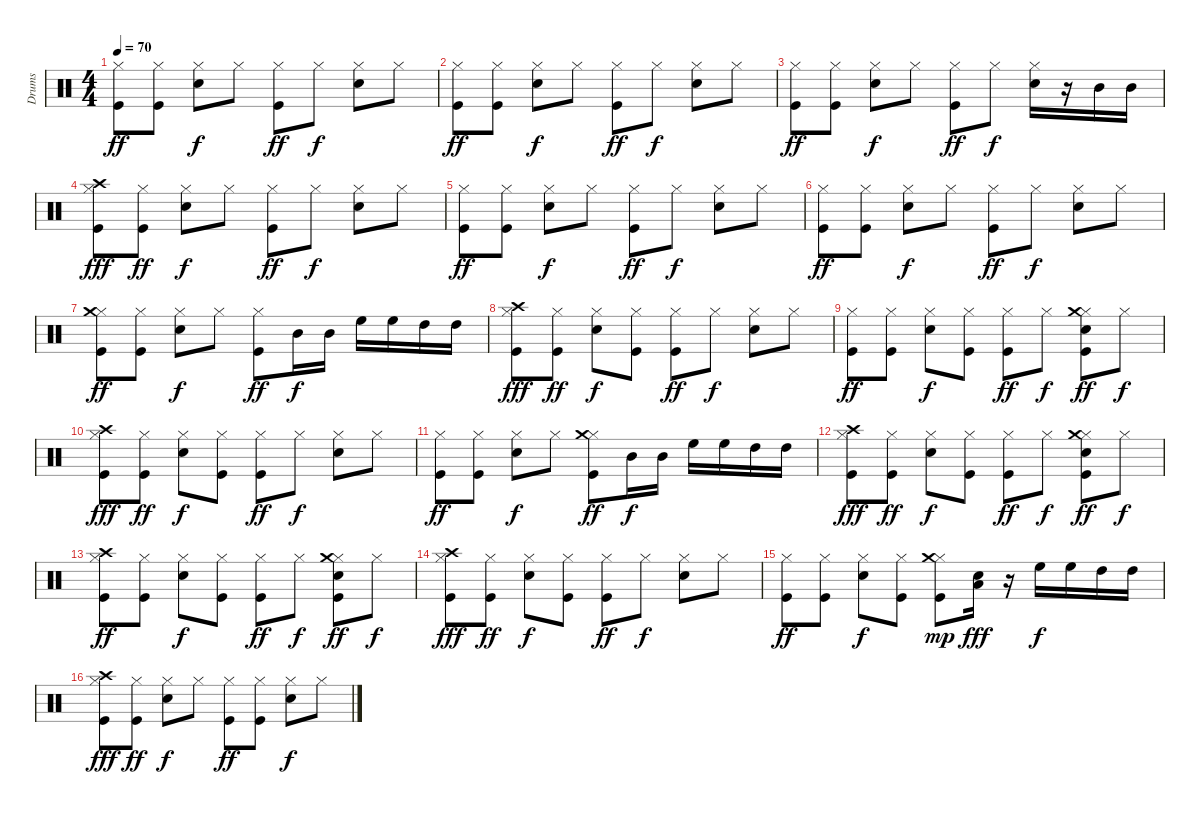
\track ("Drums" "Drums") {instrument percussion}
\staff {score}
\articulation defaults
\ts (4 4)
\tempo 70
\clef neutral
\ks c
("Hi-Hat (closed)" "Kick (hit)").8{dy ff} ("Hi-Hat (closed)" "Kick (hit)").8 ("Hi-Hat (closed)" "Snare (hit) 2").8{dy f} "Hi-Hat (closed)".8 ("Hi-Hat (closed)" "Kick (hit)").8{dy ff} "Hi-Hat (closed)".8{dy f} ("Hi-Hat (closed)" "Snare (hit) 2").8 "Hi-Hat (closed)".8 |
("Hi-Hat (closed)" "Kick (hit)").8{dy ff} ("Hi-Hat (closed)" "Kick (hit)").8 ("Hi-Hat (closed)" "Snare (hit) 2").8{dy f} "Hi-Hat (closed)".8 ("Hi-Hat (closed)" "Kick (hit)").8{dy ff} "Hi-Hat (closed)".8{dy f} ("Hi-Hat (closed)" "Snare (hit) 2").8 "Hi-Hat (closed)".8 |
("Hi-Hat (closed)" "Kick (hit)").8{dy ff} ("Hi-Hat (closed)" "Kick (hit)").8 ("Hi-Hat (closed)" "Snare (hit) 2").8{dy f} "Hi-Hat (closed)".8 ("Hi-Hat (closed)" "Kick (hit)").8{dy ff} "Hi-Hat (closed)".8{dy f} ("Hi-Hat (closed)" "Snare (hit) 2").16 r.16 "Mid Tom (hit)".16 "Mid Tom (hit)".16 |
("Hi-Hat (closed)" "Kick (hit)" "Crash high (hit)").8{dy fff} ("Hi-Hat (closed)" "Kick (hit)").8{dy ff} ("Hi-Hat (closed)" "Snare (hit) 2").8{dy f} "Hi-Hat (closed)".8 ("Hi-Hat (closed)" "Kick (hit)").8{dy ff} "Hi-Hat (closed)".8{dy f} ("Hi-Hat (closed)" "Snare (hit) 2").8 "Hi-Hat (closed)".8 |
("Hi-Hat (closed)" "Kick (hit)").8{dy ff} ("Hi-Hat (closed)" "Kick (hit)").8 ("Hi-Hat (closed)" "Snare (hit) 2").8{dy f} "Hi-Hat (closed)".8 ("Hi-Hat (closed)" "Kick (hit)").8{dy ff} "Hi-Hat (closed)".8{dy f} ("Hi-Hat (closed)" "Snare (hit) 2").8 "Hi-Hat (closed)".8 |
("Hi-Hat (closed)" "Kick (hit)").8{dy ff} ("Hi-Hat (closed)" "Kick (hit)").8 ("Hi-Hat (closed)" "Snare (hit) 2").8{dy f} "Hi-Hat (closed)".8 ("Hi-Hat (closed)" "Kick (hit)").8{dy ff} "Hi-Hat (closed)".8{dy f} ("Hi-Hat (closed)" "Snare (hit) 2").8 "Hi-Hat (closed)".8 |
("Hi-Hat (closed)" "Kick (hit)" "Crash medium (hit)").8{dy ff} ("Hi-Hat (closed)" "Kick (hit)").8 ("Hi-Hat (closed)" "Snare (hit) 2").8{dy f} "Hi-Hat (closed)".8 ("Hi-Hat (closed)" "Kick (hit)").8{dy ff} "Mid Tom (hit)".16{dy f} "Mid Tom (hit)".16 "High Floor Tom (hit)".16 "High Floor Tom (hit)".16 "High Tom (hit)".16 "High Tom (hit)".16 |
("Hi-Hat (closed)" "Kick (hit)" "Crash high (hit)").8{dy fff} ("Hi-Hat (closed)" "Kick (hit)").8{dy ff} ("Hi-Hat (closed)" "Snare (hit) 2").8{dy f} ("Hi-Hat (closed)" "Kick (hit)").8 ("Hi-Hat (closed)" "Kick (hit)").8{dy ff} "Hi-Hat (closed)".8{dy f} ("Hi-Hat (closed)" "Snare (hit) 2").8 "Hi-Hat (closed)".8 |
("Hi-Hat (closed)" "Kick (hit)").8{dy ff} ("Hi-Hat (closed)" "Kick (hit)").8 ("Hi-Hat (closed)" "Snare (hit) 2").8{dy f} ("Hi-Hat (closed)" "Kick (hit)").8 ("Hi-Hat (closed)" "Kick (hit)").8{dy ff} "Hi-Hat (closed)".8{dy f} ("Hi-Hat (closed)" "Snare (hit) 2" "Kick (hit)" "Crash medium (hit)").8{dy ff} "Hi-Hat (closed)".8{dy f} |
("Hi-Hat (closed)" "Kick (hit)" "Crash high (hit)").8{dy fff} ("Hi-Hat (closed)" "Kick (hit)").8{dy ff} ("Hi-Hat (closed)" "Snare (hit) 2").8{dy f} ("Hi-Hat (closed)" "Kick (hit)").8 ("Hi-Hat (closed)" "Kick (hit)").8{dy ff} "Hi-Hat (closed)".8{dy f} ("Hi-Hat (closed)" "Snare (hit) 2").8 "Hi-Hat (closed)".8 |
("Hi-Hat (closed)" "Kick (hit)").8{dy ff} ("Hi-Hat (closed)" "Kick (hit)").8 ("Hi-Hat (closed)" "Snare (hit) 2").8{dy f} "Hi-Hat (closed)".8 ("Hi-Hat (closed)" "Kick (hit)" "Crash medium (hit)").8{dy ff} "Mid Tom (hit)".16{dy f} "Mid Tom (hit)".16 "High Floor Tom (hit)".16 "High Floor Tom (hit)".16 "High Tom (hit)".16 "High Tom (hit)".16 |
("Hi-Hat (closed)" "Kick (hit)" "Crash high (hit)").8{dy fff} ("Hi-Hat (closed)" "Kick (hit)").8{dy ff} ("Hi-Hat (closed)" "Snare (hit) 2").8{dy f} ("Hi-Hat (closed)" "Kick (hit)").8 ("Hi-Hat (closed)" "Kick (hit)").8{dy ff} "Hi-Hat (closed)".8{dy f} ("Hi-Hat (closed)" "Snare (hit) 2" "Kick (hit)" "Crash medium (hit)").8{dy ff} "Hi-Hat (closed)".8{dy f} |
("Hi-Hat (closed)" "Kick (hit)" "Crash high (hit)").8{dy ff} ("Hi-Hat (closed)" "Kick (hit)").8 ("Hi-Hat (closed)" "Snare (hit) 2").8{dy f} ("Hi-Hat (closed)" "Kick (hit)").8 ("Hi-Hat (closed)" "Kick (hit)").8{dy ff} "Hi-Hat (closed)".8{dy f} ("Hi-Hat (closed)" "Snare (hit) 2" "Kick (hit)" "Crash medium (hit)").8{dy ff} "Hi-Hat (closed)".8{dy f} |
("Hi-Hat (closed)" "Kick (hit)" "Crash high (hit)").8{dy fff} ("Hi-Hat (closed)" "Kick (hit)").8{dy ff} ("Hi-Hat (closed)" "Snare (hit) 2").8{dy f} ("Hi-Hat (closed)" "Kick (hit)").8 ("Hi-Hat (closed)" "Kick (hit)").8{dy ff} "Hi-Hat (closed)".8{dy f} ("Hi-Hat (closed)" "Snare (hit) 2").8 "Hi-Hat (closed)".8 |
("Hi-Hat (closed)" "Kick (hit)").8{dy ff} ("Hi-Hat (closed)" "Kick (hit)").8 ("Hi-Hat (closed)" "Snare (hit) 2").8{dy f} ("Hi-Hat (closed)" "Kick (hit)").8 ("Hi-Hat (closed)" "Kick (hit)" "Crash medium (hit)").8{dy mp} ("Snare (hit) 2" "Low Tom (hit)").16{dy fff} r.16 "High Floor Tom (hit)".16{dy f} "High Floor Tom (hit)".16 "High Tom (hit)".16 "High Tom (hit)".16 |
("Hi-Hat (closed)" "Kick (hit)" "Crash high (hit)").8{dy fff} ("Hi-Hat (closed)" "Kick (hit)").8{dy ff} ("Hi-Hat (closed)" "Snare (hit) 2").8{dy f} "Hi-Hat (closed)".8 ("Hi-Hat (closed)" "Kick (hit)").8{dy ff} ("Hi-Hat (closed)" "Kick (hit)").8 ("Hi-Hat (closed)" "Snare (hit) 2").8{dy f} "Hi-Hat (closed)".8
